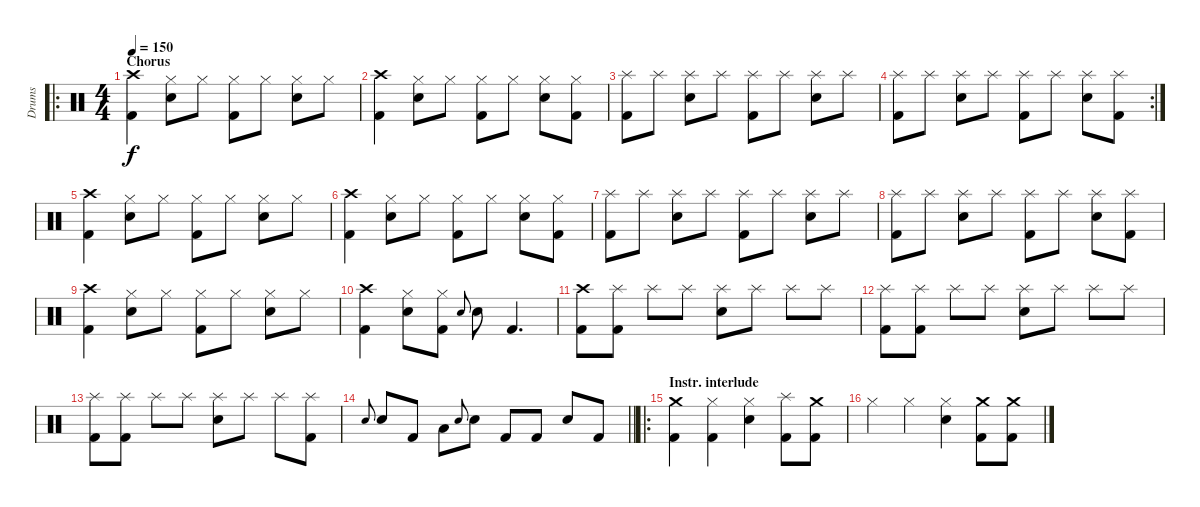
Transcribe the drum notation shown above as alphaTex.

\track ("Drums" "Drums") {instrument percussion}
\staff {score}
\articulation defaults
\ro
\ts (4 4)
\section ("" "Chorus")
\tempo 150
\clef neutral
\ks c
("Crash high (hit)" "Kick (hit) 2").4{dy f} ("Hi-Hat (closed)" "Snare (hit) 2").8 "Hi-Hat (closed)".8 ("Hi-Hat (closed)" "Kick (hit) 2").8 "Hi-Hat (closed)".8 ("Hi-Hat (closed)" "Snare (hit) 2").8 "Hi-Hat (closed)".8 |
("Crash high (hit)" "Kick (hit) 2").4 ("Hi-Hat (closed)" "Snare (hit) 2").8 "Hi-Hat (closed)".8 ("Hi-Hat (closed)" "Kick (hit) 2").8 "Hi-Hat (closed)".8 ("Hi-Hat (closed)" "Snare (hit) 2").8 ("Hi-Hat (closed)" "Kick (hit) 2").8 |
("Splash (hit)" "Kick (hit) 2").8 "Splash (hit)".8 ("Splash (hit)" "Snare (hit) 2").8 "Splash (hit)".8 ("Splash (hit)" "Kick (hit) 2").8 "Splash (hit)".8 ("Splash (hit)" "Snare (hit) 2").8 "Splash (hit)".8 |
\rc 2
("Splash (hit)" "Kick (hit) 2").8 "Splash (hit)".8 ("Splash (hit)" "Snare (hit) 2").8 "Splash (hit)".8 ("Splash (hit)" "Kick (hit) 2").8 "Splash (hit)".8 ("Splash (hit)" "Snare (hit) 2").8 ("Splash (hit)" "Kick (hit) 2").8 |
("Crash high (hit)" "Kick (hit) 2").4 ("Hi-Hat (closed)" "Snare (hit) 2").8 "Hi-Hat (closed)".8 ("Hi-Hat (closed)" "Kick (hit) 2").8 "Hi-Hat (closed)".8 ("Hi-Hat (closed)" "Snare (hit) 2").8 "Hi-Hat (closed)".8 |
("Crash high (hit)" "Kick (hit) 2").4 ("Hi-Hat (closed)" "Snare (hit) 2").8 "Hi-Hat (closed)".8 ("Hi-Hat (closed)" "Kick (hit) 2").8 "Hi-Hat (closed)".8 ("Hi-Hat (closed)" "Snare (hit) 2").8 ("Hi-Hat (closed)" "Kick (hit) 2").8 |
("Splash (hit)" "Kick (hit) 2").8 "Splash (hit)".8 ("Splash (hit)" "Snare (hit) 2").8 "Splash (hit)".8 ("Splash (hit)" "Kick (hit) 2").8 "Splash (hit)".8 ("Splash (hit)" "Snare (hit) 2").8 "Splash (hit)".8 |
("Splash (hit)" "Kick (hit) 2").8 "Splash (hit)".8 ("Splash (hit)" "Snare (hit) 2").8 "Splash (hit)".8 ("Splash (hit)" "Kick (hit) 2").8 "Splash (hit)".8 ("Splash (hit)" "Snare (hit) 2").8 ("Splash (hit)" "Kick (hit) 2").8 |
("Crash high (hit)" "Kick (hit) 2").4 ("Hi-Hat (closed)" "Snare (hit) 2").8 "Hi-Hat (closed)".8 ("Hi-Hat (closed)" "Kick (hit) 2").8 "Hi-Hat (closed)".8 ("Hi-Hat (closed)" "Snare (hit) 2").8 "Hi-Hat (closed)".8 |
("Crash high (hit)" "Kick (hit) 2").4 ("Hi-Hat (closed)" "Snare (hit) 2").8 ("Hi-Hat (closed)" "Kick (hit) 2").8 "Snare (hit) 2".8{gr onbeat} "Snare (hit) 2".8 "Kick (hit) 2".4{d} |
("Crash high (hit)" "Kick (hit) 2").8 ("Splash (hit)" "Kick (hit) 2").8 "Splash (hit)".8 "Splash (hit)".8 ("Splash (hit)" "Snare (hit) 2").8 "Splash (hit)".8 "Splash (hit)".8 "Splash (hit)".8 |
("Splash (hit)" "Kick (hit) 2").8 ("Splash (hit)" "Kick (hit) 2").8 "Splash (hit)".8 "Splash (hit)".8 ("Splash (hit)" "Snare (hit) 2").8 "Splash (hit)".8 "Splash (hit)".8 "Splash (hit)".8 |
("Splash (hit)" "Kick (hit) 2").8 ("Splash (hit)" "Kick (hit) 2").8 "Splash (hit)".8 "Splash (hit)".8 ("Splash (hit)" "Snare (hit) 2").8 "Splash (hit)".8 "Splash (hit)".8 ("Splash (hit)" "Kick (hit) 2").8 |
\barLineRight lightlight "Snare (hit) 2".8{gr onbeat} "Snare (hit) 2".8 "Kick (hit) 2".8 "Low Tom (hit)".8 "Electric Snare (hit)".8{gr onbeat} "Snare (hit) 2".8 "Kick (hit) 2".8 "Kick (hit) 2".8 "Snare (hit) 2".8 "Kick (hit) 2".8
|
\ro
\section ("" "Instr. interlude")
("Crash medium (hit)" "Kick (hit) 2").4 ("Hi-Hat (closed)" "Kick (hit) 2").4 ("Hi-Hat (closed)" "Snare (hit) 2").4 ("Splash (hit)" "Kick (hit) 2").8 ("Crash medium (hit)" "Kick (hit) 2").8 |
"Hi-Hat (closed)".4 "Hi-Hat (closed)".4 ("Hi-Hat (closed)" "Snare (hit) 2").4 ("Crash medium (hit)" "Kick (hit) 2").8 ("Crash medium (hit)" "Kick (hit) 2").8
